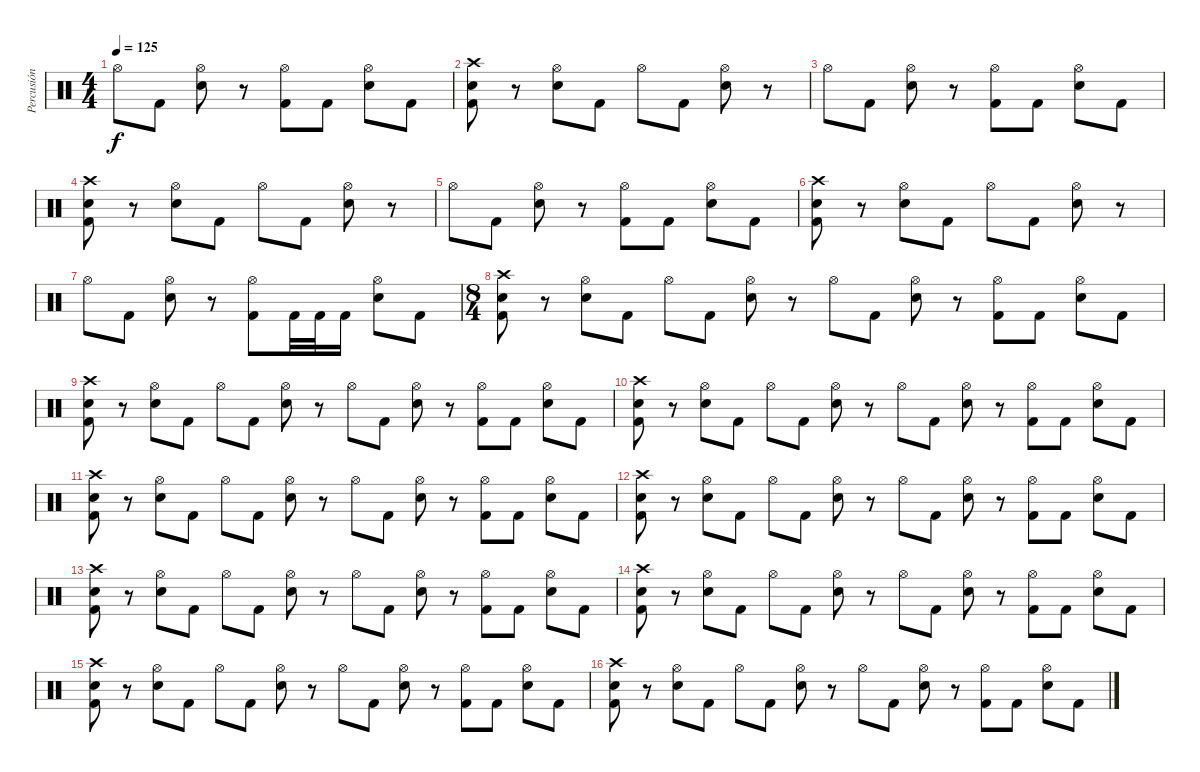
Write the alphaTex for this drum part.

\track ("Percusión" "Percusión") {instrument percussion}
\staff {score}
\articulation defaults
\ts (4 4)
\tempo 125
\clef neutral
\ks c "Hi-Hat (open)".8{dy f} "Kick (hit) 2".8
("Hi-Hat (open)" "Electric Snare (hit)").8 r.8 ("Hi-Hat (open)" "Kick (hit) 2").8 "Kick (hit) 2".8 ("Hi-Hat (open)" "Electric Snare (hit)").8 "Kick (hit) 2".8 |
("Crash high (hit)" "Electric Snare (hit)" "Kick (hit) 2").8 r.8 ("Hi-Hat (open)" "Electric Snare (hit)").8 "Kick (hit) 2".8 "Hi-Hat (open)".8 "Kick (hit) 2".8 ("Hi-Hat (open)" "Electric Snare (hit)").8 r.8 |
"Hi-Hat (open)".8 "Kick (hit) 2".8 ("Hi-Hat (open)" "Electric Snare (hit)").8 r.8 ("Hi-Hat (open)" "Kick (hit) 2").8 "Kick (hit) 2".8 ("Hi-Hat (open)" "Electric Snare (hit)").8 "Kick (hit) 2".8 |
("Crash high (hit)" "Electric Snare (hit)" "Kick (hit) 2").8 r.8 ("Hi-Hat (open)" "Electric Snare (hit)").8 "Kick (hit) 2".8 "Hi-Hat (open)".8 "Kick (hit) 2".8 ("Hi-Hat (open)" "Electric Snare (hit)").8 r.8 |
"Hi-Hat (open)".8 "Kick (hit) 2".8 ("Hi-Hat (open)" "Electric Snare (hit)").8 r.8 ("Hi-Hat (open)" "Kick (hit) 2").8 "Kick (hit) 2".8 ("Hi-Hat (open)" "Electric Snare (hit)").8 "Kick (hit) 2".8 |
("Crash high (hit)" "Electric Snare (hit)" "Kick (hit) 2").8 r.8 ("Hi-Hat (open)" "Electric Snare (hit)").8 "Kick (hit) 2".8 "Hi-Hat (open)".8 "Kick (hit) 2".8 ("Hi-Hat (open)" "Electric Snare (hit)").8 r.8 |
"Hi-Hat (open)".8 "Kick (hit) 2".8 ("Hi-Hat (open)" "Electric Snare (hit)").8 r.8 ("Hi-Hat (open)" "Kick (hit) 2").8 "Kick (hit) 2".32 "Kick (hit) 2".32 "Kick (hit) 2".16 ("Hi-Hat (open)" "Electric Snare (hit)").8 "Kick (hit) 2".8 |
\ts (8 4)
("Crash high (hit)" "Electric Snare (hit)" "Kick (hit) 2").8 r.8 ("Hi-Hat (open)" "Electric Snare (hit)").8 "Kick (hit) 2".8 "Hi-Hat (open)".8 "Kick (hit) 2".8 ("Hi-Hat (open)" "Electric Snare (hit)").8 r.8 "Hi-Hat (open)".8 "Kick (hit) 2".8 ("Hi-Hat (open)" "Electric Snare (hit)").8 r.8 ("Hi-Hat (open)" "Kick (hit) 2").8 "Kick (hit) 2".8 ("Hi-Hat (open)" "Electric Snare (hit)").8 "Kick (hit) 2".8 |
("Crash high (hit)" "Electric Snare (hit)" "Kick (hit) 2").8 r.8 ("Hi-Hat (open)" "Electric Snare (hit)").8 "Kick (hit) 2".8 "Hi-Hat (open)".8 "Kick (hit) 2".8 ("Hi-Hat (open)" "Electric Snare (hit)").8 r.8 "Hi-Hat (open)".8 "Kick (hit) 2".8 ("Hi-Hat (open)" "Electric Snare (hit)").8 r.8 ("Hi-Hat (open)" "Kick (hit) 2").8 "Kick (hit) 2".8 ("Hi-Hat (open)" "Electric Snare (hit)").8 "Kick (hit) 2".8 |
("Crash high (hit)" "Electric Snare (hit)" "Kick (hit) 2").8 r.8 ("Hi-Hat (open)" "Electric Snare (hit)").8 "Kick (hit) 2".8 "Hi-Hat (open)".8 "Kick (hit) 2".8 ("Hi-Hat (open)" "Electric Snare (hit)").8 r.8 "Hi-Hat (open)".8 "Kick (hit) 2".8 ("Hi-Hat (open)" "Electric Snare (hit)").8 r.8 ("Hi-Hat (open)" "Kick (hit) 2").8 "Kick (hit) 2".8 ("Hi-Hat (open)" "Electric Snare (hit)").8 "Kick (hit) 2".8 |
("Crash high (hit)" "Electric Snare (hit)" "Kick (hit) 2").8 r.8 ("Hi-Hat (open)" "Electric Snare (hit)").8 "Kick (hit) 2".8 "Hi-Hat (open)".8 "Kick (hit) 2".8 ("Hi-Hat (open)" "Electric Snare (hit)").8 r.8 "Hi-Hat (open)".8 "Kick (hit) 2".8 ("Hi-Hat (open)" "Electric Snare (hit)").8 r.8 ("Hi-Hat (open)" "Kick (hit) 2").8 "Kick (hit) 2".8 ("Hi-Hat (open)" "Electric Snare (hit)").8 "Kick (hit) 2".8 |
("Crash high (hit)" "Electric Snare (hit)" "Kick (hit) 2").8 r.8 ("Hi-Hat (open)" "Electric Snare (hit)").8 "Kick (hit) 2".8 "Hi-Hat (open)".8 "Kick (hit) 2".8 ("Hi-Hat (open)" "Electric Snare (hit)").8 r.8 "Hi-Hat (open)".8 "Kick (hit) 2".8 ("Hi-Hat (open)" "Electric Snare (hit)").8 r.8 ("Hi-Hat (open)" "Kick (hit) 2").8 "Kick (hit) 2".8 ("Hi-Hat (open)" "Electric Snare (hit)").8 "Kick (hit) 2".8 |
("Crash high (hit)" "Electric Snare (hit)" "Kick (hit) 2").8 r.8 ("Hi-Hat (open)" "Electric Snare (hit)").8 "Kick (hit) 2".8 "Hi-Hat (open)".8 "Kick (hit) 2".8 ("Hi-Hat (open)" "Electric Snare (hit)").8 r.8 "Hi-Hat (open)".8 "Kick (hit) 2".8 ("Hi-Hat (open)" "Electric Snare (hit)").8 r.8 ("Hi-Hat (open)" "Kick (hit) 2").8 "Kick (hit) 2".8 ("Hi-Hat (open)" "Electric Snare (hit)").8 "Kick (hit) 2".8 |
("Crash high (hit)" "Electric Snare (hit)" "Kick (hit) 2").8 r.8 ("Hi-Hat (open)" "Electric Snare (hit)").8 "Kick (hit) 2".8 "Hi-Hat (open)".8 "Kick (hit) 2".8 ("Hi-Hat (open)" "Electric Snare (hit)").8 r.8 "Hi-Hat (open)".8 "Kick (hit) 2".8 ("Hi-Hat (open)" "Electric Snare (hit)").8 r.8 ("Hi-Hat (open)" "Kick (hit) 2").8 "Kick (hit) 2".8 ("Hi-Hat (open)" "Electric Snare (hit)").8 "Kick (hit) 2".8 |
("Crash high (hit)" "Electric Snare (hit)" "Kick (hit) 2").8 r.8 ("Hi-Hat (open)" "Electric Snare (hit)").8 "Kick (hit) 2".8 "Hi-Hat (open)".8 "Kick (hit) 2".8 ("Hi-Hat (open)" "Electric Snare (hit)").8 r.8 "Hi-Hat (open)".8 "Kick (hit) 2".8 ("Hi-Hat (open)" "Electric Snare (hit)").8 r.8 ("Hi-Hat (open)" "Kick (hit) 2").8 "Kick (hit) 2".8 ("Hi-Hat (open)" "Electric Snare (hit)").8 "Kick (hit) 2".8 |
("Crash high (hit)" "Electric Snare (hit)" "Kick (hit) 2").8 r.8 ("Hi-Hat (open)" "Electric Snare (hit)").8 "Kick (hit) 2".8 "Hi-Hat (open)".8 "Kick (hit) 2".8 ("Hi-Hat (open)" "Electric Snare (hit)").8 r.8 "Hi-Hat (open)".8 "Kick (hit) 2".8 ("Hi-Hat (open)" "Electric Snare (hit)").8 r.8 ("Hi-Hat (open)" "Kick (hit) 2").8 "Kick (hit) 2".8 ("Hi-Hat (open)" "Electric Snare (hit)").8 "Kick (hit) 2".8
